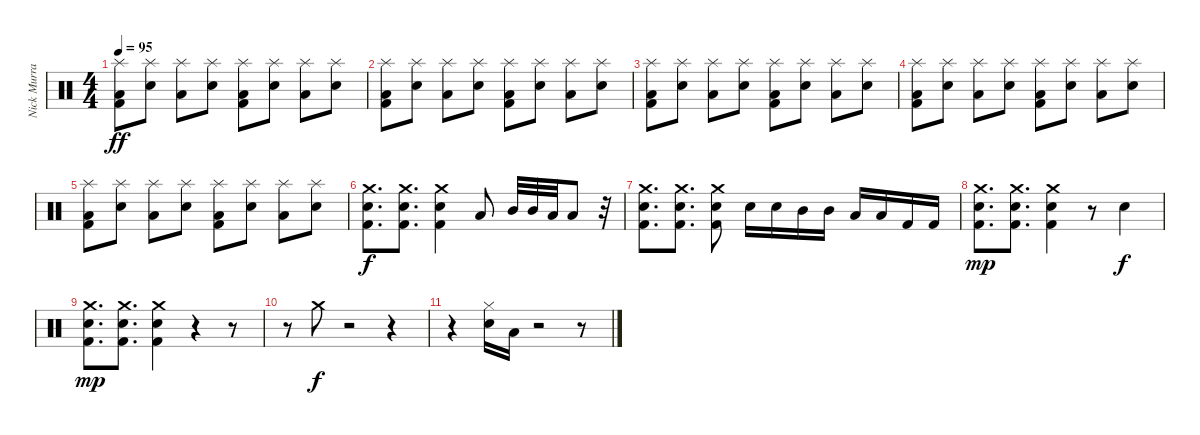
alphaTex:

\track ("Nick Murray" "Nick Murra") {instrument percussion}
\staff {score}
\articulation defaults
\ts (4 4)
\tempo 95
\clef neutral
\ks c
("Splash (hit)" "Low Floor Tom (hit)" "Kick (hit) 2").8{dy ff} ("Splash (hit)" "Electric Snare (hit)").8 ("Splash (hit)" "Low Floor Tom (hit)").8 ("Splash (hit)" "Electric Snare (hit)").8 ("Splash (hit)" "Low Floor Tom (hit)" "Kick (hit) 2").8 ("Splash (hit)" "Electric Snare (hit)").8 ("Splash (hit)" "Low Floor Tom (hit)").8 ("Splash (hit)" "Electric Snare (hit)").8 |
("Splash (hit)" "Low Floor Tom (hit)" "Kick (hit) 2").8 ("Splash (hit)" "Electric Snare (hit)").8 ("Splash (hit)" "Low Floor Tom (hit)").8 ("Splash (hit)" "Electric Snare (hit)").8 ("Splash (hit)" "Low Floor Tom (hit)" "Kick (hit) 2").8 ("Splash (hit)" "Electric Snare (hit)").8 ("Splash (hit)" "Low Floor Tom (hit)").8 ("Splash (hit)" "Electric Snare (hit)").8 |
("Splash (hit)" "Low Floor Tom (hit)" "Kick (hit) 2").8 ("Splash (hit)" "Electric Snare (hit)").8 ("Splash (hit)" "Low Floor Tom (hit)").8 ("Splash (hit)" "Electric Snare (hit)").8 ("Splash (hit)" "Low Floor Tom (hit)" "Kick (hit) 2").8 ("Splash (hit)" "Electric Snare (hit)").8 ("Splash (hit)" "Low Floor Tom (hit)").8 ("Splash (hit)" "Electric Snare (hit)").8 |
("Splash (hit)" "Low Floor Tom (hit)" "Kick (hit) 2").8 ("Splash (hit)" "Electric Snare (hit)").8 ("Splash (hit)" "Low Floor Tom (hit)").8 ("Splash (hit)" "Electric Snare (hit)").8 ("Splash (hit)" "Low Floor Tom (hit)" "Kick (hit) 2").8 ("Splash (hit)" "Electric Snare (hit)").8 ("Splash (hit)" "Low Floor Tom (hit)").8 ("Splash (hit)" "Electric Snare (hit)").8 |
("Splash (hit)" "Low Floor Tom (hit)" "Kick (hit) 2").8 ("Splash (hit)" "Electric Snare (hit)").8 ("Splash (hit)" "Low Floor Tom (hit)").8 ("Splash (hit)" "Electric Snare (hit)").8 ("Splash (hit)" "Low Floor Tom (hit)" "Kick (hit) 2").8 ("Splash (hit)" "Electric Snare (hit)").8 ("Splash (hit)" "Low Floor Tom (hit)").8 ("Splash (hit)" "Electric Snare (hit)").8 |
("Crash medium (hit)" "Electric Snare (hit)" "Kick (hit) 2").8{d dy f} ("Crash medium (hit)" "Electric Snare (hit)" "Kick (hit) 2").8{d} ("Crash medium (hit)" "Electric Snare (hit)" "Kick (hit) 2").4 "Low Floor Tom (hit)".8 "Mid Tom (hit)".32 "Mid Tom (hit)".32 "Low Floor Tom (hit)".32 "Low Floor Tom (hit)".8 r.32 |
("Crash medium (hit)" "Electric Snare (hit)" "Kick (hit) 2").8{d} ("Crash medium (hit)" "Electric Snare (hit)" "Kick (hit) 2").8{d} ("Crash medium (hit)" "Electric Snare (hit)" "Kick (hit) 2").8 "Electric Snare (hit)".16 "Electric Snare (hit)".16 "Mid Tom (hit)".16 "Mid Tom (hit)".16 "Low Floor Tom (hit)".16 "Low Floor Tom (hit)".16 "Kick (hit) 2".16 "Kick (hit) 2".16 |
("Crash medium (hit)" "Electric Snare (hit)" "Kick (hit) 2").8{d dy mp} ("Crash medium (hit)" "Electric Snare (hit)" "Kick (hit) 2").8{d} ("Crash medium (hit)" "Electric Snare (hit)" "Kick (hit) 2").4 r.8 "Electric Snare (hit)".4{dy f} |
("Crash medium (hit)" "Electric Snare (hit)" "Kick (hit) 2").8{d dy mp} ("Crash medium (hit)" "Electric Snare (hit)" "Kick (hit) 2").8{d} ("Crash medium (hit)" "Electric Snare (hit)" "Kick (hit) 2").4 r.4 r.8 |
r.8 "Crash medium (hit)".8{dy f} r.2 r.4 |
r.4 ("Hi-Hat (closed)" "Electric Snare (hit)").16 "Low Floor Tom (hit)".16 r.2 r.8
